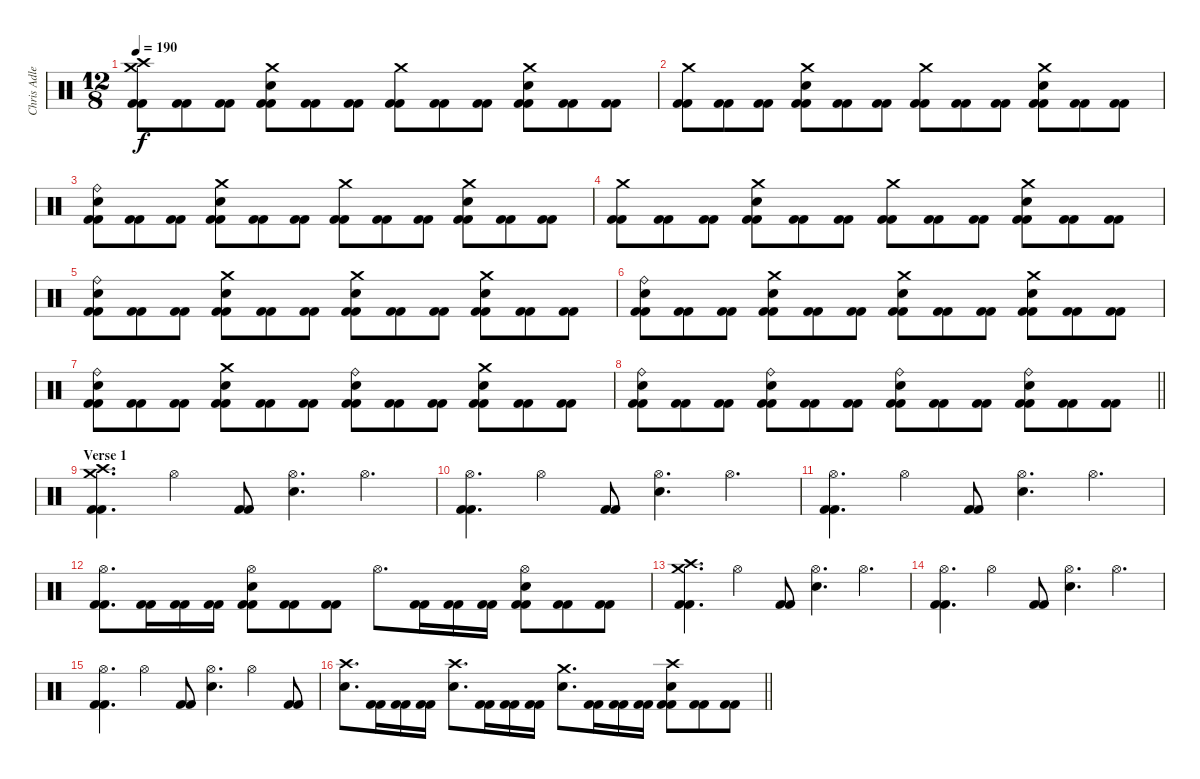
\track ("Chris Adler" "Chris Adle") {instrument percussion}
\staff {score}
\articulation defaults
\ts (12 8)
\tempo 190
\clef neutral
\ks c
("Crash medium (hit)" "Crash high (hit)" "Kick (hit) 2" "Kick (hit) 2").8{dy f} ("Kick (hit) 2" "Kick (hit) 2").8 ("Kick (hit) 2" "Kick (hit) 2").8 ("Crash medium (hit)" "Electric Snare (hit)" "Kick (hit) 2" "Kick (hit) 2").8 ("Kick (hit) 2" "Kick (hit) 2").8 ("Kick (hit) 2" "Kick (hit) 2").8 ("Crash medium (hit)" "Kick (hit) 2" "Kick (hit) 2").8 ("Kick (hit) 2" "Kick (hit) 2").8 ("Kick (hit) 2" "Kick (hit) 2").8 ("Crash medium (hit)" "Electric Snare (hit)" "Kick (hit) 2" "Kick (hit) 2").8 ("Kick (hit) 2" "Kick (hit) 2").8 ("Kick (hit) 2" "Kick (hit) 2").8 |
("Crash medium (hit)" "Kick (hit) 2" "Kick (hit) 2").8 ("Kick (hit) 2" "Kick (hit) 2").8 ("Kick (hit) 2" "Kick (hit) 2").8 ("Crash medium (hit)" "Electric Snare (hit)" "Kick (hit) 2" "Kick (hit) 2").8 ("Kick (hit) 2" "Kick (hit) 2").8 ("Kick (hit) 2" "Kick (hit) 2").8 ("Crash medium (hit)" "Kick (hit) 2" "Kick (hit) 2").8 ("Kick (hit) 2" "Kick (hit) 2").8 ("Kick (hit) 2" "Kick (hit) 2").8 ("Crash medium (hit)" "Electric Snare (hit)" "Kick (hit) 2" "Kick (hit) 2").8 ("Kick (hit) 2" "Kick (hit) 2").8 ("Kick (hit) 2" "Kick (hit) 2").8 |
("Ride (bell)" "Electric Snare (hit)" "Kick (hit) 2" "Kick (hit) 2").8 ("Kick (hit) 2" "Kick (hit) 2").8 ("Kick (hit) 2" "Kick (hit) 2").8 ("Crash medium (hit)" "Electric Snare (hit)" "Kick (hit) 2" "Kick (hit) 2").8 ("Kick (hit) 2" "Kick (hit) 2").8 ("Kick (hit) 2" "Kick (hit) 2").8 ("Crash medium (hit)" "Kick (hit) 2" "Kick (hit) 2").8 ("Kick (hit) 2" "Kick (hit) 2").8 ("Kick (hit) 2" "Kick (hit) 2").8 ("Crash medium (hit)" "Electric Snare (hit)" "Kick (hit) 2" "Kick (hit) 2").8 ("Kick (hit) 2" "Kick (hit) 2").8 ("Kick (hit) 2" "Kick (hit) 2").8 |
("Crash medium (hit)" "Kick (hit) 2" "Kick (hit) 2").8 ("Kick (hit) 2" "Kick (hit) 2").8 ("Kick (hit) 2" "Kick (hit) 2").8 ("Crash medium (hit)" "Electric Snare (hit)" "Kick (hit) 2" "Kick (hit) 2").8 ("Kick (hit) 2" "Kick (hit) 2").8 ("Kick (hit) 2" "Kick (hit) 2").8 ("Crash medium (hit)" "Kick (hit) 2" "Kick (hit) 2").8 ("Kick (hit) 2" "Kick (hit) 2").8 ("Kick (hit) 2" "Kick (hit) 2").8 ("Crash medium (hit)" "Electric Snare (hit)" "Kick (hit) 2" "Kick (hit) 2").8 ("Kick (hit) 2" "Kick (hit) 2").8 ("Kick (hit) 2" "Kick (hit) 2").8 |
("Ride (bell)" "Electric Snare (hit)" "Kick (hit) 2" "Kick (hit) 2").8 ("Kick (hit) 2" "Kick (hit) 2").8 ("Kick (hit) 2" "Kick (hit) 2").8 ("Crash medium (hit)" "Electric Snare (hit)" "Kick (hit) 2" "Kick (hit) 2").8 ("Kick (hit) 2" "Kick (hit) 2").8 ("Kick (hit) 2" "Kick (hit) 2").8 ("Crash medium (hit)" "Electric Snare (hit)" "Kick (hit) 2" "Kick (hit) 2").8 ("Kick (hit) 2" "Kick (hit) 2").8 ("Kick (hit) 2" "Kick (hit) 2").8 ("Crash medium (hit)" "Electric Snare (hit)" "Kick (hit) 2" "Kick (hit) 2").8 ("Kick (hit) 2" "Kick (hit) 2").8 ("Kick (hit) 2" "Kick (hit) 2").8 |
("Ride (bell)" "Electric Snare (hit)" "Kick (hit) 2" "Kick (hit) 2").8 ("Kick (hit) 2" "Kick (hit) 2").8 ("Kick (hit) 2" "Kick (hit) 2").8 ("Crash medium (hit)" "Electric Snare (hit)" "Kick (hit) 2" "Kick (hit) 2").8 ("Kick (hit) 2" "Kick (hit) 2").8 ("Kick (hit) 2" "Kick (hit) 2").8 ("Crash medium (hit)" "Electric Snare (hit)" "Kick (hit) 2" "Kick (hit) 2").8 ("Kick (hit) 2" "Kick (hit) 2").8 ("Kick (hit) 2" "Kick (hit) 2").8 ("Crash medium (hit)" "Electric Snare (hit)" "Kick (hit) 2" "Kick (hit) 2").8 ("Kick (hit) 2" "Kick (hit) 2").8 ("Kick (hit) 2" "Kick (hit) 2").8 |
("Ride (bell)" "Electric Snare (hit)" "Kick (hit) 2" "Kick (hit) 2").8 ("Kick (hit) 2" "Kick (hit) 2").8 ("Kick (hit) 2" "Kick (hit) 2").8 ("Crash medium (hit)" "Electric Snare (hit)" "Kick (hit) 2" "Kick (hit) 2").8 ("Kick (hit) 2" "Kick (hit) 2").8 ("Kick (hit) 2" "Kick (hit) 2").8 ("Ride (bell)" "Electric Snare (hit)" "Kick (hit) 2" "Kick (hit) 2").8 ("Kick (hit) 2" "Kick (hit) 2").8 ("Kick (hit) 2" "Kick (hit) 2").8 ("Crash medium (hit)" "Electric Snare (hit)" "Kick (hit) 2" "Kick (hit) 2").8 ("Kick (hit) 2" "Kick (hit) 2").8 ("Kick (hit) 2" "Kick (hit) 2").8 |
\barLineRight lightlight
("Ride (bell)" "Electric Snare (hit)" "Kick (hit) 2" "Kick (hit) 2").8 ("Kick (hit) 2" "Kick (hit) 2").8 ("Kick (hit) 2" "Kick (hit) 2").8 ("Ride (bell)" "Electric Snare (hit)" "Kick (hit) 2" "Kick (hit) 2").8 ("Kick (hit) 2" "Kick (hit) 2").8 ("Kick (hit) 2" "Kick (hit) 2").8 ("Ride (bell)" "Electric Snare (hit)" "Kick (hit) 2" "Kick (hit) 2").8 ("Kick (hit) 2" "Kick (hit) 2").8 ("Kick (hit) 2" "Kick (hit) 2").8 ("Ride (bell)" "Electric Snare (hit)" "Kick (hit) 2" "Kick (hit) 2").8 ("Kick (hit) 2" "Kick (hit) 2").8 ("Kick (hit) 2" "Kick (hit) 2").8 |
\section ("" "Verse 1")
("Crash medium (hit)" "Crash high (hit)" "Kick (hit) 2" "Kick (hit) 2").4{d} "Hi-Hat (open)".4 ("Kick (hit) 2" "Kick (hit) 2").8 ("Hi-Hat (open)" "Electric Snare (hit)").4{d} "Hi-Hat (open)".4{d} |
("Hi-Hat (open)" "Kick (hit) 2" "Kick (hit) 2").4{d} "Hi-Hat (open)".4 ("Kick (hit) 2" "Kick (hit) 2").8 ("Hi-Hat (open)" "Electric Snare (hit)").4{d} "Hi-Hat (open)".4{d} |
("Hi-Hat (open)" "Kick (hit) 2" "Kick (hit) 2").4{d} "Hi-Hat (open)".4 ("Kick (hit) 2" "Kick (hit) 2").8 ("Hi-Hat (open)" "Electric Snare (hit)").4{d} "Hi-Hat (open)".4{d} |
("Hi-Hat (open)" "Kick (hit) 2" "Kick (hit) 2").8{d} ("Kick (hit) 2" "Kick (hit) 2").16 ("Kick (hit) 2" "Kick (hit) 2").16 ("Kick (hit) 2" "Kick (hit) 2").16 ("Hi-Hat (open)" "Electric Snare (hit)" "Kick (hit) 2" "Kick (hit) 2").8 ("Kick (hit) 2" "Kick (hit) 2").8 ("Kick (hit) 2" "Kick (hit) 2").8 "Hi-Hat (open)".8{d} ("Kick (hit) 2" "Kick (hit) 2").16 ("Kick (hit) 2" "Kick (hit) 2").16 ("Kick (hit) 2" "Kick (hit) 2").16 ("Hi-Hat (open)" "Electric Snare (hit)" "Kick (hit) 2" "Kick (hit) 2").8 ("Kick (hit) 2" "Kick (hit) 2").8 ("Kick (hit) 2" "Kick (hit) 2").8 |
("Crash medium (hit)" "Crash high (hit)" "Kick (hit) 2" "Kick (hit) 2").4{d} "Hi-Hat (open)".4 ("Kick (hit) 2" "Kick (hit) 2").8 ("Hi-Hat (open)" "Electric Snare (hit)").4{d} "Hi-Hat (open)".4{d} |
("Hi-Hat (open)" "Kick (hit) 2" "Kick (hit) 2").4{d} "Hi-Hat (open)".4 ("Kick (hit) 2" "Kick (hit) 2").8 ("Hi-Hat (open)" "Electric Snare (hit)").4{d} "Hi-Hat (open)".4{d} |
("Hi-Hat (open)" "Kick (hit) 2" "Kick (hit) 2").4{d} "Hi-Hat (open)".4 ("Kick (hit) 2" "Kick (hit) 2").8 ("Hi-Hat (open)" "Electric Snare (hit)").4{d} "Hi-Hat (open)".4 ("Kick (hit) 2" "Kick (hit) 2").8 |
\barLineRight lightlight
("Crash high (hit)" "Electric Snare (hit)").8{d} ("Kick (hit) 2" "Kick (hit) 2").16 ("Kick (hit) 2" "Kick (hit) 2").16 ("Kick (hit) 2" "Kick (hit) 2").16 ("Crash high (hit)" "Electric Snare (hit)").8{d} ("Kick (hit) 2" "Kick (hit) 2").16 ("Kick (hit) 2" "Kick (hit) 2").16 ("Kick (hit) 2" "Kick (hit) 2").16 ("Crash medium (hit)" "Electric Snare (hit)").8{d} ("Kick (hit) 2" "Kick (hit) 2").16 ("Kick (hit) 2" "Kick (hit) 2").16 ("Kick (hit) 2" "Kick (hit) 2").16 ("Crash high (hit)" "Electric Snare (hit)" "Kick (hit) 2" "Kick (hit) 2").8 ("Kick (hit) 2" "Kick (hit) 2").8 ("Kick (hit) 2" "Kick (hit) 2").8
